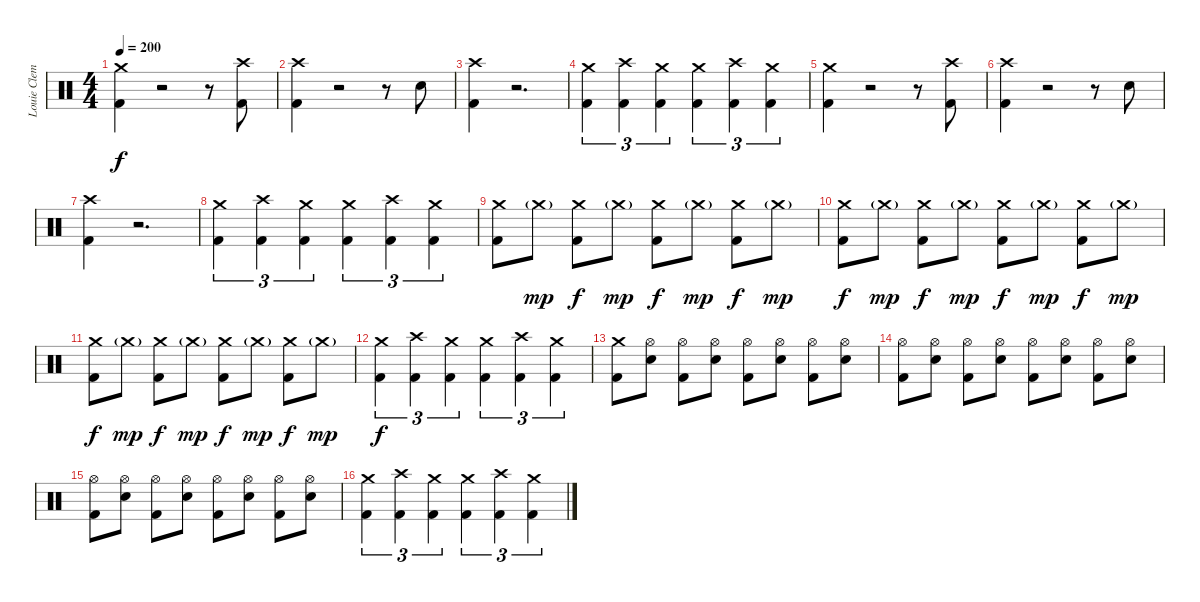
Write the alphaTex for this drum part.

\track ("Louie Clemente" "Louie Clem") {instrument percussion}
\staff {score}
\articulation defaults
\ts (4 4)
\tempo 200
\clef neutral
\ks c
("Crash medium (hit)" "Kick (hit) 2").4{dy f} r.2 r.8 ("Crash high (hit)" "Kick (hit) 2").8 |
("Crash high (hit)" "Kick (hit) 2").4 r.2 r.8 "Snare (hit) 2".8 |
("Crash high (hit)" "Kick (hit) 2").4 r.2{d} |
("Crash medium (hit)" "Kick (hit) 2").4{tu (3 2)} ("Crash high (hit)" "Kick (hit) 2").4{tu (3 2)} ("Crash medium (hit)" "Kick (hit) 2").4{tu (3 2)} ("Crash medium (hit)" "Kick (hit) 2").4{tu (3 2)} ("Crash high (hit)" "Kick (hit) 2").4{tu (3 2)} ("Crash medium (hit)" "Kick (hit) 2").4{tu (3 2)} |
("Crash medium (hit)" "Kick (hit) 2").4 r.2 r.8 ("Crash high (hit)" "Kick (hit) 2").8 |
("Crash high (hit)" "Kick (hit) 2").4 r.2 r.8 "Snare (hit) 2".8 |
("Crash high (hit)" "Kick (hit) 2").4 r.2{d} |
("Crash medium (hit)" "Kick (hit) 2").4{tu (3 2)} ("Crash high (hit)" "Kick (hit) 2").4{tu (3 2)} ("Crash medium (hit)" "Kick (hit) 2").4{tu (3 2)} ("Crash medium (hit)" "Kick (hit) 2").4{tu (3 2)} ("Crash high (hit)" "Kick (hit) 2").4{tu (3 2)} ("Crash medium (hit)" "Kick (hit) 2").4{tu (3 2)} |
("Crash medium (hit)" "Kick (hit) 2").8 "Crash medium (hit)"{g}.8{dy mp} ("Crash medium (hit)" "Kick (hit) 2").8{dy f} "Crash medium (hit)"{g}.8{dy mp} ("Crash medium (hit)" "Kick (hit) 2").8{dy f} "Crash medium (hit)"{g}.8{dy mp} ("Crash medium (hit)" "Kick (hit) 2").8{dy f} "Crash medium (hit)"{g}.8{dy mp} |
("Crash medium (hit)" "Kick (hit) 2").8{dy f} "Crash medium (hit)"{g}.8{dy mp} ("Crash medium (hit)" "Kick (hit) 2").8{dy f} "Crash medium (hit)"{g}.8{dy mp} ("Crash medium (hit)" "Kick (hit) 2").8{dy f} "Crash medium (hit)"{g}.8{dy mp} ("Crash medium (hit)" "Kick (hit) 2").8{dy f} "Crash medium (hit)"{g}.8{dy mp} |
("Crash medium (hit)" "Kick (hit) 2").8{dy f} "Crash medium (hit)"{g}.8{dy mp} ("Crash medium (hit)" "Kick (hit) 2").8{dy f} "Crash medium (hit)"{g}.8{dy mp} ("Crash medium (hit)" "Kick (hit) 2").8{dy f} "Crash medium (hit)"{g}.8{dy mp} ("Crash medium (hit)" "Kick (hit) 2").8{dy f} "Crash medium (hit)"{g}.8{dy mp} |
("Crash medium (hit)" "Kick (hit) 2").4{tu (3 2) dy f} ("Crash high (hit)" "Kick (hit) 2").4{tu (3 2)} ("Crash medium (hit)" "Kick (hit) 2").4{tu (3 2)} ("Crash medium (hit)" "Kick (hit) 2").4{tu (3 2)} ("Crash high (hit)" "Kick (hit) 2").4{tu (3 2)} ("Crash medium (hit)" "Kick (hit) 2").4{tu (3 2)} |
("Crash medium (hit)" "Kick (hit) 2").8 ("Hi-Hat (open)" "Snare (hit) 2").8 ("Hi-Hat (open)" "Kick (hit) 2").8 ("Hi-Hat (open)" "Snare (hit) 2").8 ("Hi-Hat (open)" "Kick (hit) 2").8 ("Hi-Hat (open)" "Snare (hit) 2").8 ("Hi-Hat (open)" "Kick (hit) 2").8 ("Hi-Hat (open)" "Snare (hit) 2").8 |
("Hi-Hat (open)" "Kick (hit) 2").8 ("Hi-Hat (open)" "Snare (hit) 2").8 ("Hi-Hat (open)" "Kick (hit) 2").8 ("Hi-Hat (open)" "Snare (hit) 2").8 ("Hi-Hat (open)" "Kick (hit) 2").8 ("Hi-Hat (open)" "Snare (hit) 2").8 ("Hi-Hat (open)" "Kick (hit) 2").8 ("Hi-Hat (open)" "Snare (hit) 2").8 |
("Hi-Hat (open)" "Kick (hit) 2").8 ("Hi-Hat (open)" "Snare (hit) 2").8 ("Hi-Hat (open)" "Kick (hit) 2").8 ("Hi-Hat (open)" "Snare (hit) 2").8 ("Hi-Hat (open)" "Kick (hit) 2").8 ("Hi-Hat (open)" "Snare (hit) 2").8 ("Hi-Hat (open)" "Kick (hit) 2").8 ("Hi-Hat (open)" "Snare (hit) 2").8 |
("Crash medium (hit)" "Kick (hit) 2").4{tu (3 2)} ("Crash high (hit)" "Kick (hit) 2").4{tu (3 2)} ("Crash medium (hit)" "Kick (hit) 2").4{tu (3 2)} ("Crash medium (hit)" "Kick (hit) 2").4{tu (3 2)} ("Crash high (hit)" "Kick (hit) 2").4{tu (3 2)} ("Crash medium (hit)" "Kick (hit) 2").4{tu (3 2)}
